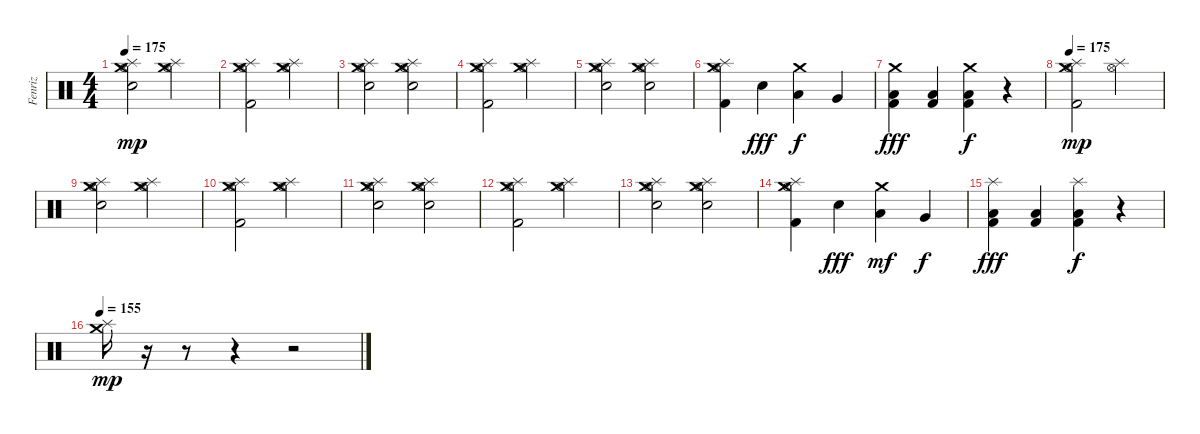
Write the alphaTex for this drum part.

\track ("Fenriz" "Fenriz") {instrument percussion}
\staff {score}
\articulation defaults
\ts (4 4)
\tempo 175
\clef neutral
\ks c
("Crash medium (hit)" "Electric Snare (hit)" "Splash (hit)" "Hi-Hat (open)").2{dy mp} ("Crash medium (hit)" "Splash (hit)" "Hi-Hat (open)").2 |
("Kick (hit) 2" "Crash medium (hit)" "Splash (hit)" "Hi-Hat (open)").2 ("Crash medium (hit)" "Splash (hit)" "Hi-Hat (open)").2 |
("Crash medium (hit)" "Electric Snare (hit)" "Splash (hit)" "Hi-Hat (open)").2 ("Crash medium (hit)" "Electric Snare (hit)" "Splash (hit)" "Hi-Hat (open)").2 |
("Kick (hit) 2" "Crash medium (hit)" "Splash (hit)" "Hi-Hat (open)").2 ("Crash medium (hit)" "Splash (hit)" "Hi-Hat (open)").2 |
("Crash medium (hit)" "Electric Snare (hit)" "Splash (hit)" "Hi-Hat (open)").2 ("Crash medium (hit)" "Electric Snare (hit)" "Splash (hit)" "Hi-Hat (open)").2 |
("Kick (hit) 2" "Crash medium (hit)" "Splash (hit)" "Hi-Hat (open)").4 "Electric Snare (hit)".4{dy fff} ("Crash medium (hit)" "Low Tom (hit)").4{dy f} "Very Low Tom (hit)".4 |
("Kick (hit) 2" "Crash medium (hit)" "Low Floor Tom (hit)").4{dy fff} ("Kick (hit) 2" "Low Floor Tom (hit)").4 ("Kick (hit) 2" "Crash medium (hit)" "Low Floor Tom (hit)").4{dy f} r.4 |
\tempo 175
("Kick (hit) 2" "Crash medium (hit)" "Splash (hit)" "Hi-Hat (open)").2{dy mp} ("Splash (hit)" "Hi-Hat (open)").2 |
("Crash medium (hit)" "Electric Snare (hit)" "Splash (hit)" "Hi-Hat (open)").2 ("Crash medium (hit)" "Splash (hit)" "Hi-Hat (open)").2 |
("Kick (hit) 2" "Crash medium (hit)" "Splash (hit)" "Hi-Hat (open)").2 ("Crash medium (hit)" "Splash (hit)" "Hi-Hat (open)").2 |
("Crash medium (hit)" "Electric Snare (hit)" "Splash (hit)" "Hi-Hat (open)").2 ("Crash medium (hit)" "Electric Snare (hit)" "Splash (hit)" "Hi-Hat (open)").2 |
("Kick (hit) 2" "Crash medium (hit)" "Splash (hit)" "Hi-Hat (open)").2 ("Crash medium (hit)" "Splash (hit)" "Hi-Hat (open)").2 |
("Crash medium (hit)" "Electric Snare (hit)" "Splash (hit)" "Hi-Hat (open)").2 ("Crash medium (hit)" "Electric Snare (hit)" "Splash (hit)" "Hi-Hat (open)").2 |
("Kick (hit) 2" "Crash medium (hit)" "Splash (hit)" "Hi-Hat (open)").4 "Electric Snare (hit)".4{dy fff} ("Crash medium (hit)" "Low Tom (hit)").4{dy mf} "Very Low Tom (hit)".4{dy f} |
("Kick (hit) 2" "Splash (hit)" "Low Floor Tom (hit)").4{dy fff} ("Kick (hit) 2" "Low Floor Tom (hit)").4 ("Kick (hit) 2" "Splash (hit)" "Low Floor Tom (hit)").4{dy f} r.4 |
\tempo 155
("Splash (hit)" "Crash medium (hit)").16{dy mp} r.16 r.8 r.4 r.2
